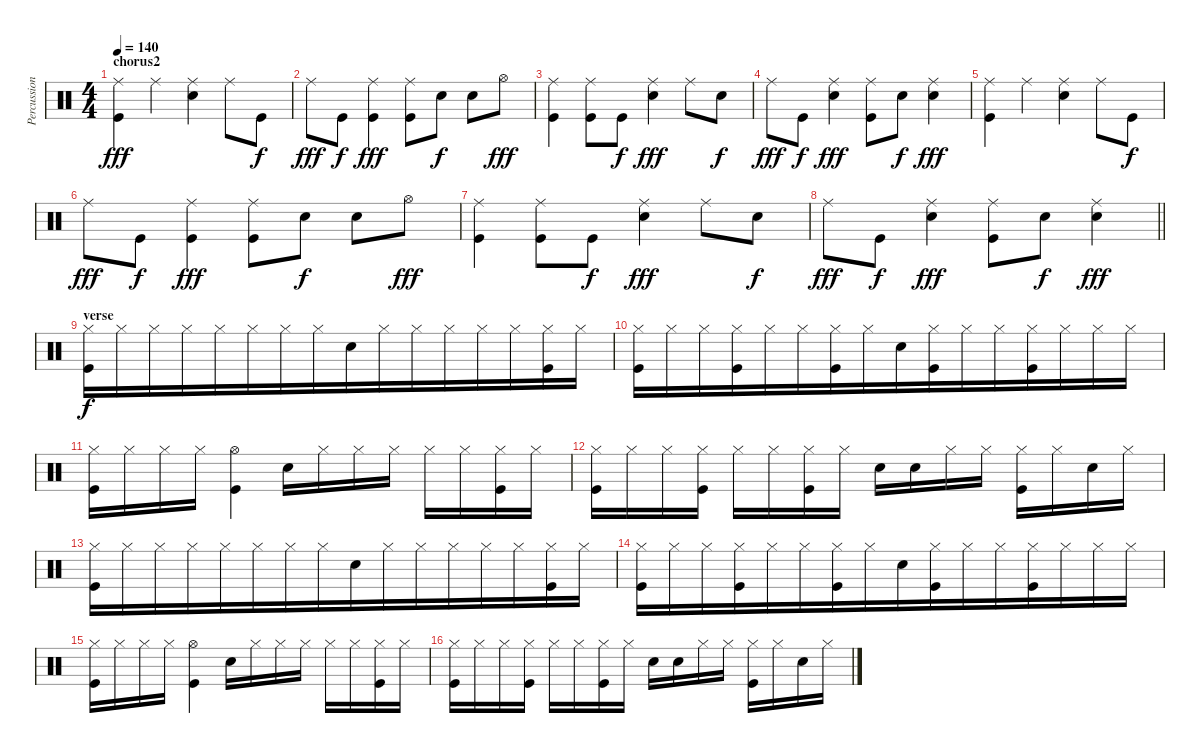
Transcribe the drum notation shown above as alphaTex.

\track ("Percussion" "Percussion") {instrument percussion}
\staff {score}
\articulation defaults
\ts (4 4)
\section ("" "chorus2")
\tempo 140
\clef neutral
\ks c
("Ride (middle)" "Kick (hit)").4{dy fff} "Ride (middle)".4 ("Ride (middle)" "Snare (hit) 2").4 "Ride (middle)".8 "Kick (hit)".8{dy f} |
"Ride (middle)".8{dy fff} "Kick (hit)".8{dy f} ("Ride (middle)" "Kick (hit)").4{dy fff} ("Ride (middle)" "Kick (hit)").8 "Snare (hit) 2".8{dy f} "Snare (hit) 2".8 "Hi-Hat (open)".8{dy fff} |
("Ride (middle)" "Kick (hit)").4 ("Ride (middle)" "Kick (hit)").8 "Kick (hit)".8{dy f} ("Ride (middle)" "Snare (hit) 2").4{dy fff} "Ride (middle)".8 "Snare (hit) 2".8{dy f} |
"Ride (middle)".8{dy fff} "Kick (hit)".8{dy f} ("Snare (hit) 2" "Ride (middle)").4{dy fff} ("Kick (hit)" "Ride (middle)").8 "Snare (hit) 2".8{dy f} ("Snare (hit) 2" "Ride (middle)").4{dy fff} |
("Ride (middle)" "Kick (hit)").4 "Ride (middle)".4 ("Ride (middle)" "Snare (hit) 2").4 "Ride (middle)".8 "Kick (hit)".8{dy f} |
"Ride (middle)".8{dy fff} "Kick (hit)".8{dy f} ("Ride (middle)" "Kick (hit)").4{dy fff} ("Ride (middle)" "Kick (hit)").8 "Snare (hit) 2".8{dy f} "Snare (hit) 2".8 "Hi-Hat (open)".8{dy fff} |
("Ride (middle)" "Kick (hit)").4 ("Ride (middle)" "Kick (hit)").8 "Kick (hit)".8{dy f} ("Ride (middle)" "Snare (hit) 2").4{dy fff} "Ride (middle)".8 "Snare (hit) 2".8{dy f} |
\barLineRight lightlight "Ride (middle)".8{dy fff} "Kick (hit)".8{dy f}
("Snare (hit) 2" "Ride (middle)").4{dy fff} ("Kick (hit)" "Ride (middle)").8 "Snare (hit) 2".8{dy f} ("Snare (hit) 2" "Ride (middle)").4{dy fff} |
\section ("" "verse")
("Kick (hit)" "Hi-Hat (closed)").16{dy f beam merge} "Hi-Hat (closed)".16{beam merge} "Hi-Hat (closed)".16{beam merge} "Hi-Hat (closed)".16{beam merge} "Hi-Hat (closed)".16{beam merge} "Hi-Hat (closed)".16{beam merge} "Hi-Hat (closed)".16{beam merge} "Hi-Hat (closed)".16{beam merge} "Snare (hit) 2".16{beam merge} "Hi-Hat (closed)".16{beam merge} "Hi-Hat (closed)".16{beam merge} "Hi-Hat (closed)".16{beam merge} "Hi-Hat (closed)".16{beam merge} "Hi-Hat (closed)".16{beam merge} ("Hi-Hat (closed)" "Kick (hit)").16{beam merge} "Hi-Hat (closed)".16 |
("Hi-Hat (closed)" "Kick (hit)").16{beam merge} "Hi-Hat (closed)".16{beam merge} "Hi-Hat (closed)".16{beam merge} ("Hi-Hat (closed)" "Kick (hit)").16{beam merge} "Hi-Hat (closed)".16{beam merge} "Hi-Hat (closed)".16{beam merge} ("Hi-Hat (closed)" "Kick (hit)").16{beam merge} "Hi-Hat (closed)".16{beam merge} "Snare (hit) 2".16{beam merge} ("Hi-Hat (closed)" "Kick (hit)").16{beam merge} "Hi-Hat (closed)".16{beam merge} "Hi-Hat (closed)".16{beam merge} ("Hi-Hat (closed)" "Kick (hit)").16{beam merge} "Hi-Hat (closed)".16{beam merge} "Hi-Hat (closed)".16{beam merge} "Hi-Hat (closed)".16 |
("Hi-Hat (closed)" "Kick (hit)").16 "Hi-Hat (closed)".16 "Hi-Hat (closed)".16 "Hi-Hat (closed)".16 ("Kick (hit)" "Hi-Hat (open)").4 "Snare (hit) 2".16 "Hi-Hat (closed)".16 "Hi-Hat (closed)".16 "Hi-Hat (closed)".16 "Hi-Hat (closed)".16 "Hi-Hat (closed)".16 ("Hi-Hat (closed)" "Kick (hit)").16 "Hi-Hat (closed)".16 |
("Hi-Hat (closed)" "Kick (hit)").16 "Hi-Hat (closed)".16 "Hi-Hat (closed)".16 ("Hi-Hat (closed)" "Kick (hit)").16 "Hi-Hat (closed)".16 "Hi-Hat (closed)".16 ("Hi-Hat (closed)" "Kick (hit)").16 "Hi-Hat (closed)".16 "Snare (hit) 2".16 "Snare (hit) 2".16 "Hi-Hat (closed)".16 "Hi-Hat (closed)".16 ("Hi-Hat (closed)" "Kick (hit)").16 "Hi-Hat (closed)".16 "Snare (hit) 2".16 "Hi-Hat (closed)".16 |
("Kick (hit)" "Hi-Hat (closed)").16{beam merge} "Hi-Hat (closed)".16{beam merge} "Hi-Hat (closed)".16{beam merge} "Hi-Hat (closed)".16{beam merge} "Hi-Hat (closed)".16{beam merge} "Hi-Hat (closed)".16{beam merge} "Hi-Hat (closed)".16{beam merge} "Hi-Hat (closed)".16{beam merge} "Snare (hit) 2".16{beam merge} "Hi-Hat (closed)".16{beam merge} "Hi-Hat (closed)".16{beam merge} "Hi-Hat (closed)".16{beam merge} "Hi-Hat (closed)".16{beam merge} "Hi-Hat (closed)".16{beam merge} ("Hi-Hat (closed)" "Kick (hit)").16{beam merge} "Hi-Hat (closed)".16 |
("Hi-Hat (closed)" "Kick (hit)").16{beam merge} "Hi-Hat (closed)".16{beam merge} "Hi-Hat (closed)".16{beam merge} ("Hi-Hat (closed)" "Kick (hit)").16{beam merge} "Hi-Hat (closed)".16{beam merge} "Hi-Hat (closed)".16{beam merge} ("Hi-Hat (closed)" "Kick (hit)").16{beam merge} "Hi-Hat (closed)".16{beam merge} "Snare (hit) 2".16{beam merge} ("Hi-Hat (closed)" "Kick (hit)").16{beam merge} "Hi-Hat (closed)".16{beam merge} "Hi-Hat (closed)".16{beam merge} ("Hi-Hat (closed)" "Kick (hit)").16{beam merge} "Hi-Hat (closed)".16{beam merge} "Hi-Hat (closed)".16{beam merge} "Hi-Hat (closed)".16 |
("Hi-Hat (closed)" "Kick (hit)").16 "Hi-Hat (closed)".16 "Hi-Hat (closed)".16 "Hi-Hat (closed)".16 ("Kick (hit)" "Hi-Hat (open)").4 "Snare (hit) 2".16 "Hi-Hat (closed)".16 "Hi-Hat (closed)".16 "Hi-Hat (closed)".16 "Hi-Hat (closed)".16 "Hi-Hat (closed)".16 ("Hi-Hat (closed)" "Kick (hit)").16 "Hi-Hat (closed)".16 |
("Hi-Hat (closed)" "Kick (hit)").16 "Hi-Hat (closed)".16 "Hi-Hat (closed)".16 ("Hi-Hat (closed)" "Kick (hit)").16 "Hi-Hat (closed)".16 "Hi-Hat (closed)".16 ("Hi-Hat (closed)" "Kick (hit)").16 "Hi-Hat (closed)".16 "Snare (hit) 2".16 "Snare (hit) 2".16 "Hi-Hat (closed)".16 "Hi-Hat (closed)".16 ("Hi-Hat (closed)" "Kick (hit)").16 "Hi-Hat (closed)".16 "Snare (hit) 2".16 "Hi-Hat (closed)".16
